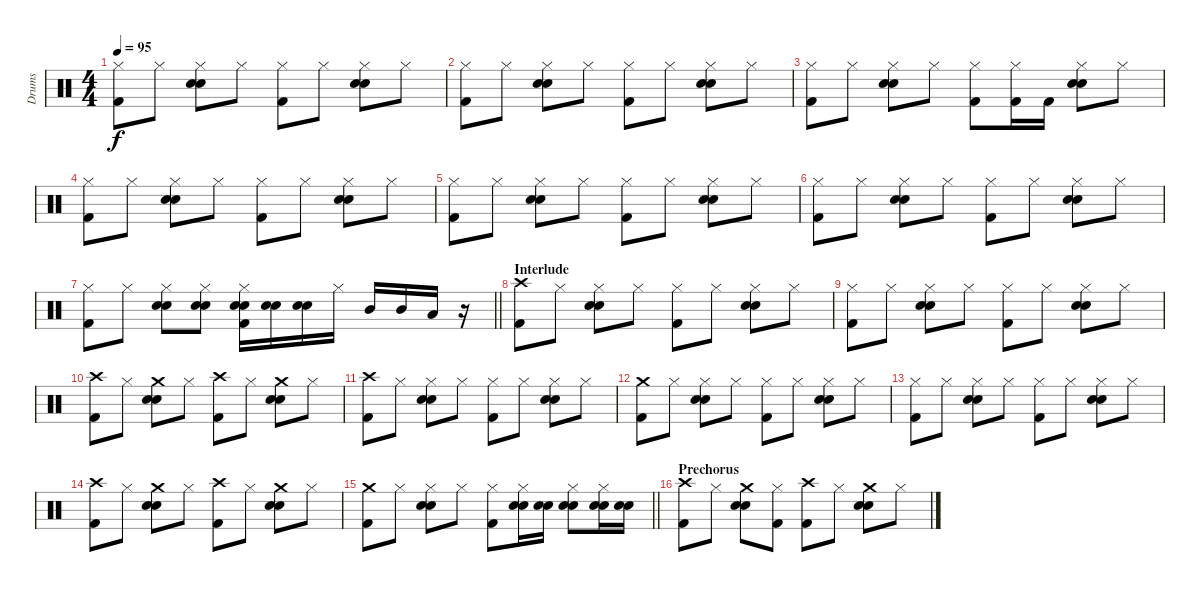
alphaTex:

\track ("Drums" "Drums") {instrument percussion}
\staff {score}
\articulation defaults
\ts (4 4)
\tempo 95
\clef neutral
\ks aminor
("Hi-Hat (closed)" "Kick (hit) 2").8{dy f} "Hi-Hat (closed)".8 ("Hi-Hat (closed)" "Snare (hit) 2" "Electric Snare (hit)").8 "Hi-Hat (closed)".8 ("Hi-Hat (closed)" "Kick (hit) 2").8 "Hi-Hat (closed)".8 ("Hi-Hat (closed)" "Snare (hit) 2" "Electric Snare (hit)").8 "Hi-Hat (closed)".8 |
("Hi-Hat (closed)" "Kick (hit) 2").8 "Hi-Hat (closed)".8 ("Hi-Hat (closed)" "Snare (hit) 2" "Electric Snare (hit)").8 "Hi-Hat (closed)".8 ("Hi-Hat (closed)" "Kick (hit) 2").8 "Hi-Hat (closed)".8 ("Hi-Hat (closed)" "Snare (hit) 2" "Electric Snare (hit)").8 "Hi-Hat (closed)".8 |
("Hi-Hat (closed)" "Kick (hit) 2").8 "Hi-Hat (closed)".8 ("Hi-Hat (closed)" "Snare (hit) 2" "Electric Snare (hit)").8 "Hi-Hat (closed)".8 ("Hi-Hat (closed)" "Kick (hit) 2").8 ("Hi-Hat (closed)" "Kick (hit) 2").16 "Kick (hit) 2".16 ("Hi-Hat (closed)" "Snare (hit) 2" "Electric Snare (hit)").8 "Hi-Hat (closed)".8 |
("Hi-Hat (closed)" "Kick (hit) 2").8 "Hi-Hat (closed)".8 ("Hi-Hat (closed)" "Snare (hit) 2" "Electric Snare (hit)").8 "Hi-Hat (closed)".8 ("Hi-Hat (closed)" "Kick (hit) 2").8 "Hi-Hat (closed)".8 ("Hi-Hat (closed)" "Snare (hit) 2" "Electric Snare (hit)").8 "Hi-Hat (closed)".8 |
("Hi-Hat (closed)" "Kick (hit) 2").8 "Hi-Hat (closed)".8 ("Hi-Hat (closed)" "Snare (hit) 2" "Electric Snare (hit)").8 "Hi-Hat (closed)".8 ("Hi-Hat (closed)" "Kick (hit) 2").8 "Hi-Hat (closed)".8 ("Hi-Hat (closed)" "Snare (hit) 2" "Electric Snare (hit)").8 "Hi-Hat (closed)".8 |
("Hi-Hat (closed)" "Kick (hit) 2").8 "Hi-Hat (closed)".8 ("Hi-Hat (closed)" "Snare (hit) 2" "Electric Snare (hit)").8 "Hi-Hat (closed)".8 ("Hi-Hat (closed)" "Kick (hit) 2").8 "Hi-Hat (closed)".8 ("Hi-Hat (closed)" "Snare (hit) 2" "Electric Snare (hit)").8 "Hi-Hat (closed)".8 |
\barLineRight lightlight
("Hi-Hat (closed)" "Kick (hit) 2").8 "Hi-Hat (closed)".8 ("Hi-Hat (closed)" "Snare (hit) 2" "Electric Snare (hit)").8 ("Hi-Hat (closed)" "Snare (hit) 2" "Electric Snare (hit)").8 ("Hi-Hat (closed)" "Snare (hit) 2" "Electric Snare (hit)" "Kick (hit) 2").16 ("Snare (hit) 2" "Electric Snare (hit)").16 ("Snare (hit) 2" "Electric Snare (hit)").16 "Hi-Hat (closed)".16 "Mid Tom (hit)".16 "Mid Tom (hit)".16 "Low Tom (hit)".16 r.16 |
\section ("" "Interlude")
("Crash high (hit)" "Kick (hit) 2").8 "Hi-Hat (closed)".8 ("Hi-Hat (closed)" "Snare (hit) 2" "Electric Snare (hit)").8 "Hi-Hat (closed)".8 ("Hi-Hat (closed)" "Kick (hit) 2").8 "Hi-Hat (closed)".8 ("Hi-Hat (closed)" "Snare (hit) 2" "Electric Snare (hit)").8 "Hi-Hat (closed)".8 |
("Hi-Hat (closed)" "Kick (hit) 2").8 "Hi-Hat (closed)".8 ("Hi-Hat (closed)" "Snare (hit) 2" "Electric Snare (hit)").8 "Hi-Hat (closed)".8 ("Hi-Hat (closed)" "Kick (hit) 2").8 "Hi-Hat (closed)".8 ("Hi-Hat (closed)" "Snare (hit) 2" "Electric Snare (hit)").8 "Hi-Hat (closed)".8 |
("Crash high (hit)" "Kick (hit) 2").8 "Hi-Hat (closed)".8 ("Crash medium (hit)" "Snare (hit) 2" "Electric Snare (hit)").8 "Hi-Hat (closed)".8 ("Crash high (hit)" "Kick (hit) 2").8 "Hi-Hat (closed)".8 ("Crash medium (hit)" "Snare (hit) 2" "Electric Snare (hit)").8 "Hi-Hat (closed)".8 |
("Crash high (hit)" "Kick (hit) 2").8 "Hi-Hat (closed)".8 ("Hi-Hat (closed)" "Snare (hit) 2" "Electric Snare (hit)").8 "Hi-Hat (closed)".8 ("Hi-Hat (closed)" "Kick (hit) 2").8 "Hi-Hat (closed)".8 ("Hi-Hat (closed)" "Snare (hit) 2" "Electric Snare (hit)").8 "Hi-Hat (closed)".8 |
("Crash medium (hit)" "Kick (hit) 2").8 "Hi-Hat (closed)".8 ("Hi-Hat (closed)" "Snare (hit) 2" "Electric Snare (hit)").8 "Hi-Hat (closed)".8 ("Hi-Hat (closed)" "Kick (hit) 2").8 "Hi-Hat (closed)".8 ("Hi-Hat (closed)" "Snare (hit) 2" "Electric Snare (hit)").8 "Hi-Hat (closed)".8 |
("Hi-Hat (closed)" "Kick (hit) 2").8 "Hi-Hat (closed)".8 ("Hi-Hat (closed)" "Snare (hit) 2" "Electric Snare (hit)").8 "Hi-Hat (closed)".8 ("Hi-Hat (closed)" "Kick (hit) 2").8 "Hi-Hat (closed)".8 ("Hi-Hat (closed)" "Snare (hit) 2" "Electric Snare (hit)").8 "Hi-Hat (closed)".8 |
("Crash high (hit)" "Kick (hit) 2").8 "Hi-Hat (closed)".8 ("Crash medium (hit)" "Snare (hit) 2" "Electric Snare (hit)").8 "Hi-Hat (closed)".8 ("Crash high (hit)" "Kick (hit) 2").8 "Hi-Hat (closed)".8 ("Crash medium (hit)" "Snare (hit) 2" "Electric Snare (hit)").8 "Hi-Hat (closed)".8 |
\barLineRight lightlight
("Crash medium (hit)" "Kick (hit) 2").8 "Hi-Hat (closed)".8 ("Hi-Hat (closed)" "Snare (hit) 2" "Electric Snare (hit)").8 "Hi-Hat (closed)".8 ("Hi-Hat (closed)" "Kick (hit) 2").8 ("Hi-Hat (closed)" "Snare (hit) 2" "Electric Snare (hit)").16 ("Snare (hit) 2" "Electric Snare (hit)").16 ("Hi-Hat (closed)" "Snare (hit) 2" "Electric Snare (hit)").8 ("Hi-Hat (closed)" "Snare (hit) 2" "Electric Snare (hit)").16 ("Snare (hit) 2" "Electric Snare (hit)").16 |
\section ("" "Prechorus")
("Crash high (hit)" "Kick (hit) 2").8 "Hi-Hat (closed)".8 ("Crash medium (hit)" "Snare (hit) 2" "Electric Snare (hit)").8 ("Hi-Hat (closed)" "Kick (hit) 2").8 ("Crash high (hit)" "Kick (hit) 2").8 "Hi-Hat (closed)".8 ("Crash medium (hit)" "Snare (hit) 2" "Electric Snare (hit)").8 "Hi-Hat (closed)".8
